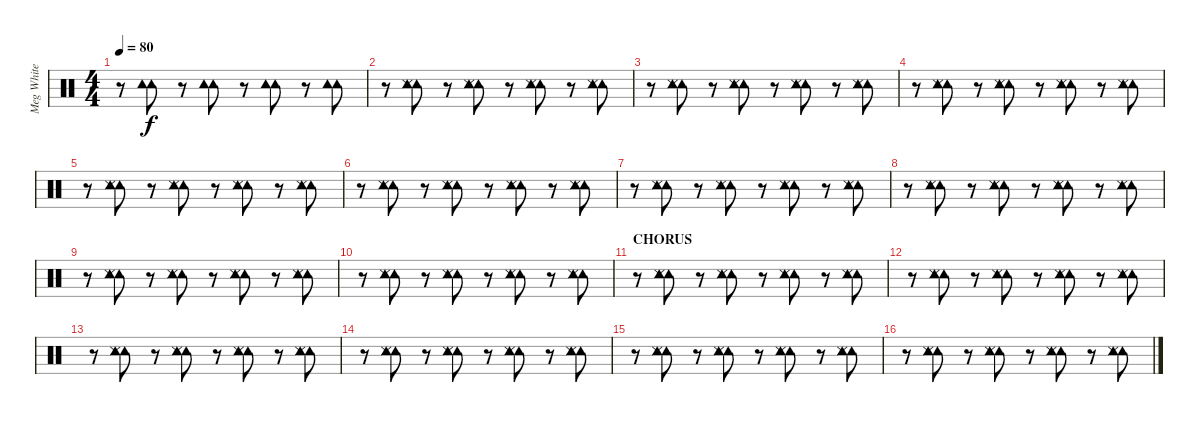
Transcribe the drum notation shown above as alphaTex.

\track ("Meg White (Tambourine)" "Meg White ") {instrument percussion}
\staff {score}
\articulation defaults
\ts (4 4)
\tempo 80
\clef neutral
\ks c
r.8{dy f} ("Tambourine (hit)" "Tambourine (hit)").8 r.8 ("Tambourine (hit)" "Tambourine (hit)").8 r.8 ("Tambourine (hit)" "Tambourine (hit)").8 r.8 ("Tambourine (hit)" "Tambourine (hit)").8 |
r.8 ("Tambourine (hit)" "Tambourine (hit)" "Metronome (hit)").8 r.8 ("Tambourine (hit)" "Tambourine (hit)" "Metronome (hit)").8 r.8 ("Tambourine (hit)" "Tambourine (hit)" "Metronome (hit)").8 r.8 ("Tambourine (hit)" "Tambourine (hit)" "Metronome (hit)").8 |
r.8 ("Tambourine (hit)" "Tambourine (hit)" "Metronome (hit)").8 r.8 ("Tambourine (hit)" "Tambourine (hit)" "Metronome (hit)").8 r.8 ("Tambourine (hit)" "Tambourine (hit)" "Metronome (hit)").8 r.8 ("Tambourine (hit)" "Tambourine (hit)" "Metronome (hit)").8 |
r.8 ("Tambourine (hit)" "Tambourine (hit)" "Metronome (hit)").8 r.8 ("Tambourine (hit)" "Tambourine (hit)" "Metronome (hit)").8 r.8 ("Tambourine (hit)" "Tambourine (hit)" "Metronome (hit)").8 r.8 ("Tambourine (hit)" "Tambourine (hit)" "Metronome (hit)").8 |
r.8 ("Tambourine (hit)" "Tambourine (hit)" "Metronome (hit)").8 r.8 ("Tambourine (hit)" "Tambourine (hit)" "Metronome (hit)").8 r.8 ("Tambourine (hit)" "Tambourine (hit)" "Metronome (hit)").8 r.8 ("Tambourine (hit)" "Tambourine (hit)" "Metronome (hit)").8 |
r.8 ("Tambourine (hit)" "Tambourine (hit)" "Metronome (hit)").8 r.8 ("Tambourine (hit)" "Tambourine (hit)" "Metronome (hit)").8 r.8 ("Tambourine (hit)" "Tambourine (hit)" "Metronome (hit)").8 r.8 ("Tambourine (hit)" "Tambourine (hit)" "Metronome (hit)").8 |
r.8 ("Tambourine (hit)" "Tambourine (hit)" "Metronome (hit)").8 r.8 ("Tambourine (hit)" "Tambourine (hit)" "Metronome (hit)").8 r.8 ("Tambourine (hit)" "Tambourine (hit)" "Metronome (hit)").8 r.8 ("Tambourine (hit)" "Tambourine (hit)" "Metronome (hit)").8 |
r.8 ("Tambourine (hit)" "Tambourine (hit)" "Metronome (hit)").8 r.8 ("Tambourine (hit)" "Tambourine (hit)" "Metronome (hit)").8 r.8 ("Tambourine (hit)" "Tambourine (hit)" "Metronome (hit)").8 r.8 ("Tambourine (hit)" "Tambourine (hit)" "Metronome (hit)").8 |
r.8 ("Tambourine (hit)" "Tambourine (hit)" "Metronome (hit)").8 r.8 ("Tambourine (hit)" "Tambourine (hit)" "Metronome (hit)").8 r.8 ("Tambourine (hit)" "Tambourine (hit)" "Metronome (hit)").8 r.8 ("Tambourine (hit)" "Tambourine (hit)" "Metronome (hit)").8 |
r.8 ("Tambourine (hit)" "Tambourine (hit)" "Metronome (hit)").8 r.8 ("Tambourine (hit)" "Tambourine (hit)" "Metronome (hit)").8 r.8 ("Tambourine (hit)" "Tambourine (hit)" "Metronome (hit)").8 r.8 ("Tambourine (hit)" "Tambourine (hit)" "Metronome (hit)").8 |
\section ("" "CHORUS")
r.8 ("Tambourine (hit)" "Tambourine (hit)" "Metronome (hit)").8 r.8 ("Tambourine (hit)" "Tambourine (hit)" "Metronome (hit)").8 r.8 ("Tambourine (hit)" "Tambourine (hit)" "Metronome (hit)").8 r.8 ("Tambourine (hit)" "Tambourine (hit)" "Metronome (hit)").8 |
r.8 ("Tambourine (hit)" "Tambourine (hit)" "Metronome (hit)").8 r.8 ("Tambourine (hit)" "Tambourine (hit)" "Metronome (hit)").8 r.8 ("Tambourine (hit)" "Tambourine (hit)" "Metronome (hit)").8 r.8 ("Tambourine (hit)" "Tambourine (hit)" "Metronome (hit)").8 |
r.8 ("Tambourine (hit)" "Tambourine (hit)" "Metronome (hit)").8 r.8 ("Tambourine (hit)" "Tambourine (hit)" "Metronome (hit)").8 r.8 ("Tambourine (hit)" "Tambourine (hit)" "Metronome (hit)").8 r.8 ("Tambourine (hit)" "Tambourine (hit)" "Metronome (hit)").8 |
r.8 ("Tambourine (hit)" "Tambourine (hit)" "Metronome (hit)").8 r.8 ("Tambourine (hit)" "Tambourine (hit)" "Metronome (hit)").8 r.8 ("Tambourine (hit)" "Tambourine (hit)" "Metronome (hit)").8 r.8 ("Tambourine (hit)" "Tambourine (hit)" "Metronome (hit)").8 |
r.8 ("Tambourine (hit)" "Tambourine (hit)" "Metronome (hit)").8 r.8 ("Tambourine (hit)" "Tambourine (hit)" "Metronome (hit)").8 r.8 ("Tambourine (hit)" "Tambourine (hit)" "Metronome (hit)").8 r.8 ("Tambourine (hit)" "Tambourine (hit)" "Metronome (hit)").8 |
r.8 ("Tambourine (hit)" "Tambourine (hit)" "Metronome (hit)").8 r.8 ("Tambourine (hit)" "Tambourine (hit)" "Metronome (hit)").8 r.8 ("Tambourine (hit)" "Tambourine (hit)" "Metronome (hit)").8 r.8 ("Tambourine (hit)" "Tambourine (hit)" "Metronome (hit)").8
